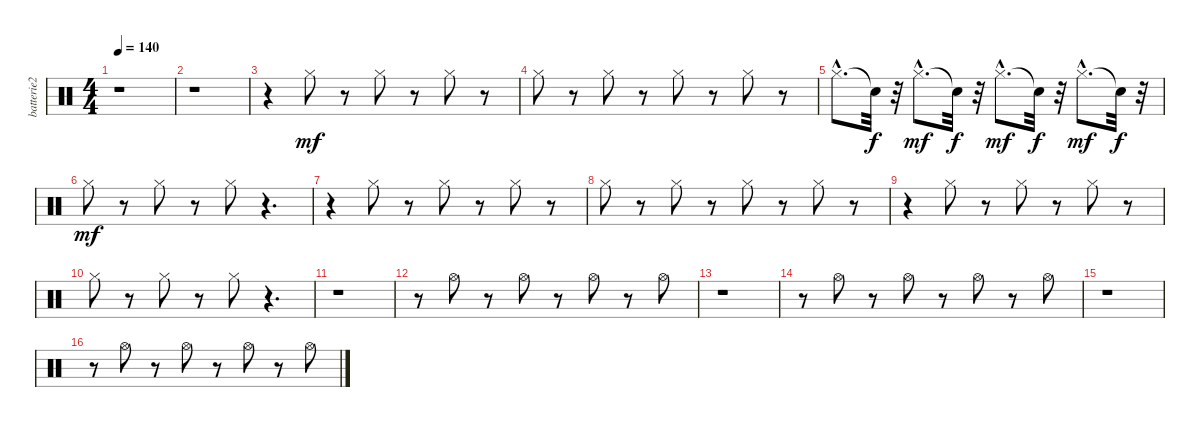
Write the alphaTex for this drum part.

\track ("batterie2" "batterie2") {instrument percussion}
\staff {score}
\articulation defaults
\ts (4 4)
\tempo 140
\clef neutral
\ks c
r.1{dy mf} |
r.1 |
r.4 "Hi-Hat (closed)".8 r.8 "Hi-Hat (closed)".8 r.8 "Hi-Hat (closed)".8 r.8 |
"Hi-Hat (closed)".8 r.8 "Hi-Hat (closed)".8 r.8 "Hi-Hat (closed)".8 r.8 "Hi-Hat (closed)".8 r.8 |
"Hi-Hat (closed)"{hac}.8{d} "Snare (hit)"{t}.32{dy f} r.32 "Hi-Hat (closed)"{hac}.8{d dy mf} "Snare (hit)"{t}.32{dy f} r.32 "Hi-Hat (closed)"{hac}.8{d dy mf} "Snare (hit)"{t}.32{dy f} r.32 "Hi-Hat (closed)"{hac}.8{d dy mf} "Snare (hit)"{t}.32{dy f} r.32 |
"Hi-Hat (closed)".8{dy mf} r.8 "Hi-Hat (closed)".8 r.8 "Hi-Hat (closed)".8 r.4{d} |
r.4 "Hi-Hat (closed)".8 r.8 "Hi-Hat (closed)".8 r.8 "Hi-Hat (closed)".8 r.8 |
"Hi-Hat (closed)".8 r.8 "Hi-Hat (closed)".8 r.8 "Hi-Hat (closed)".8 r.8 "Hi-Hat (closed)".8 r.8 |
r.4 "Hi-Hat (closed)".8 r.8 "Hi-Hat (closed)".8 r.8 "Hi-Hat (closed)".8 r.8 |
"Hi-Hat (closed)".8 r.8 "Hi-Hat (closed)".8 r.8 "Hi-Hat (closed)".8 r.4{d} |
r.1 |
r.8 "Hi-Hat (open)".8 r.8 "Hi-Hat (open)".8 r.8 "Hi-Hat (open)".8 r.8 "Hi-Hat (open)".8 |
r.1 |
r.8 "Hi-Hat (open)".8 r.8 "Hi-Hat (open)".8 r.8 "Hi-Hat (open)".8 r.8 "Hi-Hat (open)".8 |
r.1 |
r.8 "Hi-Hat (open)".8 r.8 "Hi-Hat (open)".8 r.8 "Hi-Hat (open)".8 r.8 "Hi-Hat (open)".8
